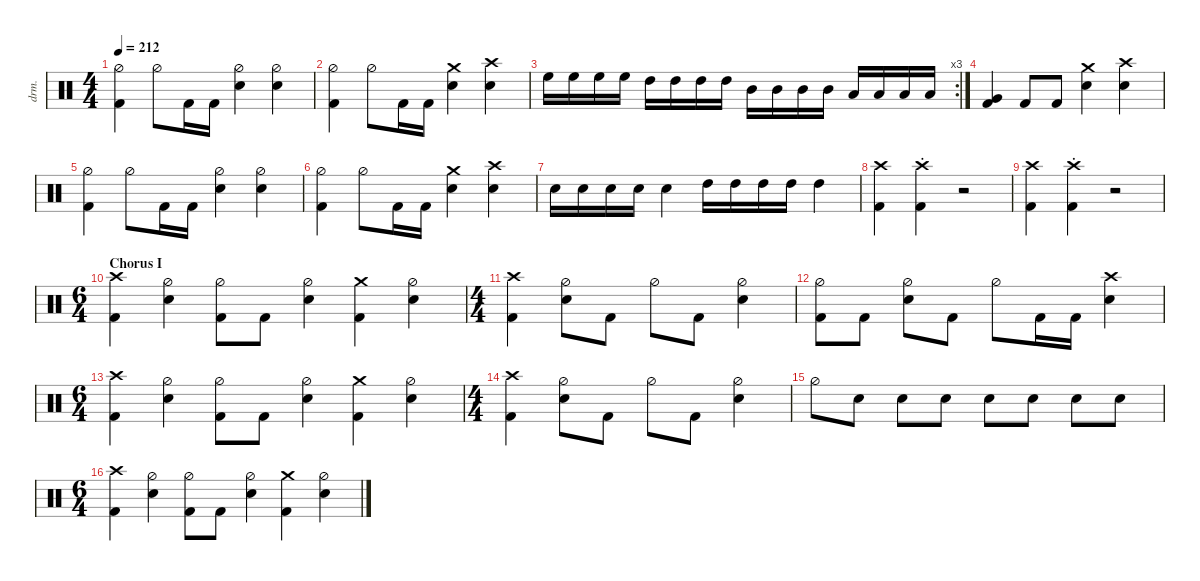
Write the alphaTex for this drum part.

\defaultSystemsLayout 4
\hideDynamics
\bracketExtendMode nobrackets
\track ("Drums" "drm.") {defaultSystemsLayout 4 multiBarRest instrument percussion}
\staff
\articulation defaults
\ts (4 4)
\tempo 212
\clef neutral
\ks c
("Hi-Hat (half)" "Kick (hit) 2").4{dy f} "Hi-Hat (half)".8 "Kick (hit) 2".16 "Kick (hit) 2".16 ("Snare (hit) 2" "Hi-Hat (half)").4 ("Snare (hit) 2" "Hi-Hat (half)").4 |
("Hi-Hat (half)" "Kick (hit) 2").4 "Hi-Hat (half)".8 "Kick (hit) 2".16 "Kick (hit) 2".16 ("Snare (hit) 2" "Crash medium (hit)").4 ("Snare (hit) 2" "Crash high (hit)").4 |
\rc 3 "High Floor Tom (hit)".16{dy fff} "High Floor Tom (hit)".16 "High Floor Tom (hit)".16 "High Floor Tom (hit)".16 "High Tom (hit)".16 "High Tom (hit)".16 "High Tom (hit)".16 "High Tom (hit)".16 "Mid Tom (hit)".16 "Mid Tom (hit)".16 "Mid Tom (hit)".16 "Mid Tom (hit)".16 "Low Tom (hit)".16 "Low Tom (hit)".16 "Low Tom (hit)".16 "Low Tom (hit)".16
|
("Kick (hit) 2" "Very Low Tom (hit)").4{dy f} "Kick (hit) 2".8 "Kick (hit) 2".8 ("Snare (hit) 2" "Crash medium (hit)").4 ("Snare (hit) 2" "Crash high (hit)").4 |
("Hi-Hat (half)" "Kick (hit) 2").4 "Hi-Hat (half)".8 "Kick (hit) 2".16 "Kick (hit) 2".16 ("Snare (hit) 2" "Hi-Hat (half)").4 ("Snare (hit) 2" "Hi-Hat (half)").4 |
("Hi-Hat (half)" "Kick (hit) 2").4 "Hi-Hat (half)".8 "Kick (hit) 2".16 "Kick (hit) 2".16 ("Snare (hit) 2" "Crash medium (hit)").4 ("Snare (hit) 2" "Crash high (hit)").4 |
"Snare (hit) 2".16 "Snare (hit) 2".16{dy mf} "Snare (hit) 2".16 "Snare (hit) 2".16 "Snare (hit) 2".4{dy f} "High Tom (hit)".16{dy ff} "High Tom (hit)".16 "High Tom (hit)".16 "High Tom (hit)".16 "High Tom (hit)".4 |
("Kick (hit) 2" "Crash high (hit)").4 ("Kick (hit) 2" "Crash high (hit)"{st}).4 r.2 |
("Kick (hit) 2" "Crash high (hit)").4 ("Kick (hit) 2" "Crash high (hit)"{st}).4 r.2 |
\ts (6 4)
\beaming (8 6 6)
\section ("" "Chorus I")
("Crash high (hit)" "Kick (hit) 2").4{dy f} ("Hi-Hat (half)" "Snare (hit) 2").4 ("Hi-Hat (half)" "Kick (hit) 2").8 "Kick (hit) 2".8 ("Hi-Hat (half)" "Snare (hit) 2").4 ("Kick (hit) 2" "Crash medium (hit)").4 ("Hi-Hat (half)" "Snare (hit) 2").4 |
\ts (4 4)
\beaming (8 2 2 2 2)
("Crash high (hit)" "Kick (hit) 2").4 ("Hi-Hat (half)" "Snare (hit) 2").8 "Kick (hit) 2".8 "Hi-Hat (half)".8 "Kick (hit) 2".8 ("Hi-Hat (half)" "Snare (hit) 2").4 |
("Hi-Hat (half)" "Kick (hit) 2").8 "Kick (hit) 2".8 ("Hi-Hat (half)" "Snare (hit) 2").8 "Kick (hit) 2".8 "Hi-Hat (half)".8 "Kick (hit) 2".16 "Kick (hit) 2".16 ("Snare (hit) 2" "Crash high (hit)").4 |
\ts (6 4)
\beaming (8 6 6)
("Crash high (hit)" "Kick (hit) 2").4 ("Hi-Hat (half)" "Snare (hit) 2").4 ("Hi-Hat (half)" "Kick (hit) 2").8 "Kick (hit) 2".8 ("Hi-Hat (half)" "Snare (hit) 2").4 ("Kick (hit) 2" "Crash medium (hit)").4 ("Hi-Hat (half)" "Snare (hit) 2").4 |
\ts (4 4)
\beaming (8 2 2 2 2)
("Crash high (hit)" "Kick (hit) 2").4 ("Hi-Hat (half)" "Snare (hit) 2").8 "Kick (hit) 2".8 "Hi-Hat (half)".8 "Kick (hit) 2".8 ("Hi-Hat (half)" "Snare (hit) 2").4 |
"Hi-Hat (half)".8 "Snare (hit) 2".8 "Snare (hit) 2".8 "Snare (hit) 2".8 "Snare (hit) 2".8 "Snare (hit) 2".8 "Snare (hit) 2".8 "Snare (hit) 2".8 |
\ts (6 4)
\beaming (8 6 6)
("Crash high (hit)" "Kick (hit) 2").4 ("Hi-Hat (half)" "Snare (hit) 2").4 ("Hi-Hat (half)" "Kick (hit) 2").8 "Kick (hit) 2".8 ("Hi-Hat (half)" "Snare (hit) 2").4 ("Kick (hit) 2" "Crash medium (hit)").4 ("Hi-Hat (half)" "Snare (hit) 2").4
